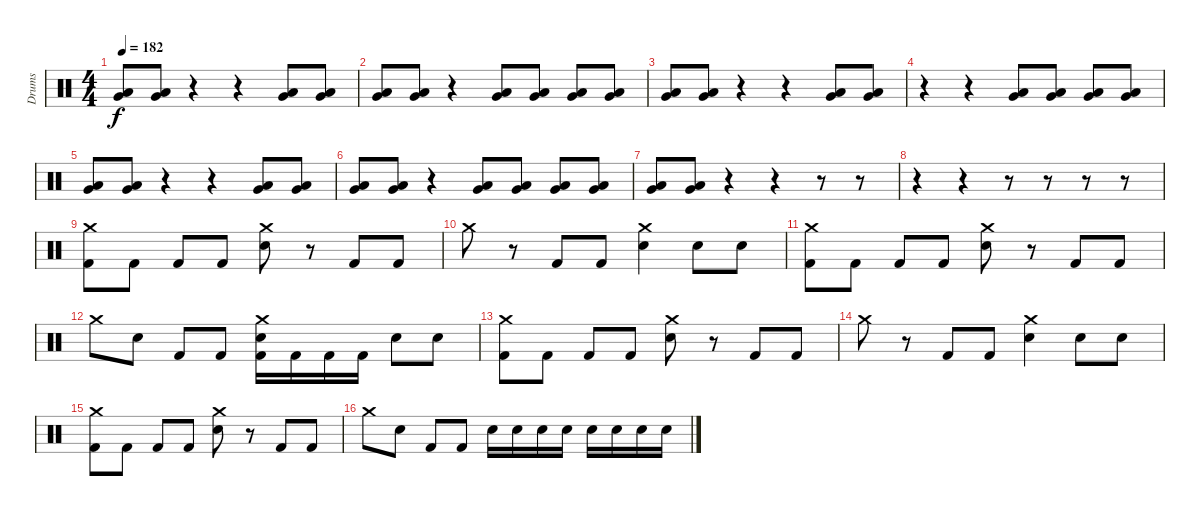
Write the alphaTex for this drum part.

\track ("Drums" "Drums") {instrument percussion}
\staff
\articulation defaults
\ts (4 4)
\tempo 182
\clef neutral
\ks c
("Low Floor Tom (hit)" "Very Low Tom (hit)").8{dy f} ("Low Floor Tom (hit)" "Very Low Tom (hit)").8 r.4 r.4 ("Low Floor Tom (hit)" "Very Low Tom (hit)").8 ("Low Floor Tom (hit)" "Very Low Tom (hit)").8 |
("Low Floor Tom (hit)" "Very Low Tom (hit)").8 ("Low Floor Tom (hit)" "Very Low Tom (hit)").8 r.4 ("Low Floor Tom (hit)" "Very Low Tom (hit)").8 ("Low Floor Tom (hit)" "Very Low Tom (hit)").8 ("Low Floor Tom (hit)" "Very Low Tom (hit)").8 ("Low Floor Tom (hit)" "Very Low Tom (hit)").8 |
("Low Floor Tom (hit)" "Very Low Tom (hit)").8 ("Low Floor Tom (hit)" "Very Low Tom (hit)").8 r.4 r.4 ("Low Floor Tom (hit)" "Very Low Tom (hit)").8 ("Low Floor Tom (hit)" "Very Low Tom (hit)").8 |
r.4 r.4 ("Low Floor Tom (hit)" "Very Low Tom (hit)").8 ("Low Floor Tom (hit)" "Very Low Tom (hit)").8 ("Low Floor Tom (hit)" "Very Low Tom (hit)").8 ("Low Floor Tom (hit)" "Very Low Tom (hit)").8 |
("Low Floor Tom (hit)" "Very Low Tom (hit)").8 ("Low Floor Tom (hit)" "Very Low Tom (hit)").8 r.4 r.4 ("Low Floor Tom (hit)" "Very Low Tom (hit)").8 ("Low Floor Tom (hit)" "Very Low Tom (hit)").8 |
("Low Floor Tom (hit)" "Very Low Tom (hit)").8 ("Low Floor Tom (hit)" "Very Low Tom (hit)").8 r.4 ("Low Floor Tom (hit)" "Very Low Tom (hit)").8 ("Low Floor Tom (hit)" "Very Low Tom (hit)").8 ("Low Floor Tom (hit)" "Very Low Tom (hit)").8 ("Low Floor Tom (hit)" "Very Low Tom (hit)").8 |
("Low Floor Tom (hit)" "Very Low Tom (hit)").8 ("Low Floor Tom (hit)" "Very Low Tom (hit)").8 r.4 r.4 r.8 r.8 |
r.4 r.4 r.8 r.8 r.8 r.8 |
("Crash medium (hit)" "Kick (hit) 2").8 "Kick (hit) 2".8 "Kick (hit) 2".8 "Kick (hit) 2".8 ("Crash medium (hit)" "Electric Snare (hit)").8 r.8 "Kick (hit) 2".8 "Kick (hit) 2".8 |
"Crash medium (hit)".8 r.8 "Kick (hit) 2".8 "Kick (hit) 2".8 ("Crash medium (hit)" "Electric Snare (hit)").4 "Electric Snare (hit)".8 "Electric Snare (hit)".8 |
("Crash medium (hit)" "Kick (hit) 2").8 "Kick (hit) 2".8 "Kick (hit) 2".8 "Kick (hit) 2".8 ("Crash medium (hit)" "Electric Snare (hit)").8 r.8 "Kick (hit) 2".8 "Kick (hit) 2".8 |
"Crash medium (hit)".8 "Electric Snare (hit)".8 "Kick (hit) 2".8 "Kick (hit) 2".8 ("Crash medium (hit)" "Electric Snare (hit)" "Kick (hit) 2").16 "Kick (hit) 2".16 "Kick (hit) 2".16 "Kick (hit) 2".16 "Electric Snare (hit)".8 "Electric Snare (hit)".8 |
("Crash medium (hit)" "Kick (hit) 2").8 "Kick (hit) 2".8 "Kick (hit) 2".8 "Kick (hit) 2".8 ("Crash medium (hit)" "Electric Snare (hit)").8 r.8 "Kick (hit) 2".8 "Kick (hit) 2".8 |
"Crash medium (hit)".8 r.8 "Kick (hit) 2".8 "Kick (hit) 2".8 ("Crash medium (hit)" "Electric Snare (hit)").4 "Electric Snare (hit)".8 "Electric Snare (hit)".8 |
("Crash medium (hit)" "Kick (hit) 2").8 "Kick (hit) 2".8 "Kick (hit) 2".8 "Kick (hit) 2".8 ("Crash medium (hit)" "Electric Snare (hit)").8 r.8 "Kick (hit) 2".8 "Kick (hit) 2".8 |
"Crash medium (hit)".8 "Electric Snare (hit)".8 "Kick (hit) 2".8 "Kick (hit) 2".8 "Electric Snare (hit)".16 "Electric Snare (hit)".16 "Electric Snare (hit)".16 "Electric Snare (hit)".16 "Electric Snare (hit)".16 "Electric Snare (hit)".16 "Electric Snare (hit)".16 "Electric Snare (hit)".16
